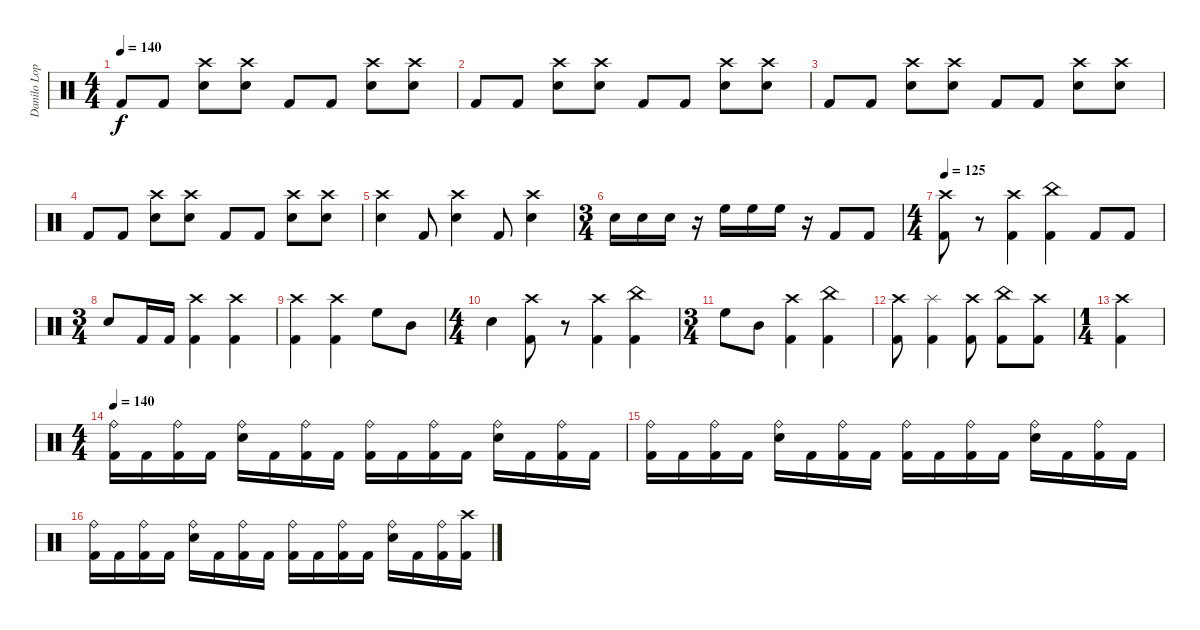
\track ("Danilo Lopes" "Danilo Lop") {instrument percussion}
\staff {score}
\articulation defaults
\ts (4 4)
\tempo 140
\clef neutral
\ks c "Kick (hit) 2".8{dy f} "Kick (hit) 2".8
("Snare (hit) 2" "Crash high (hit)").8 ("Snare (hit) 2" "Crash high (hit)").8 "Kick (hit) 2".8 "Kick (hit) 2".8 ("Snare (hit) 2" "Crash high (hit)").8 ("Snare (hit) 2" "Crash high (hit)").8 |
"Kick (hit) 2".8 "Kick (hit) 2".8 ("Snare (hit) 2" "Crash high (hit)").8 ("Snare (hit) 2" "Crash high (hit)").8 "Kick (hit) 2".8 "Kick (hit) 2".8 ("Snare (hit) 2" "Crash high (hit)").8 ("Snare (hit) 2" "Crash high (hit)").8 |
"Kick (hit) 2".8 "Kick (hit) 2".8 ("Snare (hit) 2" "Crash high (hit)").8 ("Snare (hit) 2" "Crash high (hit)").8 "Kick (hit) 2".8 "Kick (hit) 2".8 ("Snare (hit) 2" "Crash high (hit)").8 ("Snare (hit) 2" "Crash high (hit)").8 |
"Kick (hit) 2".8 "Kick (hit) 2".8 ("Snare (hit) 2" "Crash high (hit)").8 ("Snare (hit) 2" "Crash high (hit)").8 "Kick (hit) 2".8 "Kick (hit) 2".8 ("Snare (hit) 2" "Crash high (hit)").8 ("Snare (hit) 2" "Crash high (hit)").8 |
("Crash high (hit)" "Snare (hit) 2").4 "Kick (hit) 2".8 ("Crash high (hit)" "Snare (hit) 2").4 "Kick (hit) 2".8 ("Crash high (hit)" "Snare (hit) 2").4 |
\ts (3 4)
"Snare (hit) 2".16 "Snare (hit) 2".16 "Snare (hit) 2".16 r.16 "High Floor Tom (hit)".16 "High Floor Tom (hit)".16 "High Floor Tom (hit)".16 r.16 "Kick (hit) 2".8 "Kick (hit) 2".8 |
\ts (4 4)
\tempo 125
("Crash high (hit)" "Kick (hit) 2").8 r.8 ("Crash high (hit)" "Kick (hit) 2").4 ("China (hit)" "Kick (hit) 2").4 "Kick (hit) 2".8 "Kick (hit) 2".8 |
\ts (3 4)
"Snare (hit) 2".8 "Kick (hit) 2".16 "Kick (hit) 2".16 ("Crash high (hit)" "Kick (hit) 2").4 ("Kick (hit) 2" "Crash high (hit)").4 |
("Kick (hit) 2" "Crash high (hit)").4 ("Kick (hit) 2" "Crash high (hit)").4 "High Floor Tom (hit)".8 "Mid Tom (hit)".8 |
\ts (4 4)
"Snare (hit) 2".4 ("Kick (hit) 2" "Crash high (hit)").8 r.8 ("Kick (hit) 2" "Crash high (hit)").4 ("China (hit)" "Kick (hit) 2").4 |
\ts (3 4)
"High Floor Tom (hit)".8 "Mid Tom (hit)".8 ("Kick (hit) 2" "Crash high (hit)").4 ("Kick (hit) 2" "China (hit)").4 |
("Crash high (hit)" "Kick (hit) 2").8 ("Splash (hit)" "Kick (hit) 2").4 ("Crash high (hit)" "Kick (hit) 2").8 ("China (hit)" "Kick (hit) 2").8 ("Crash high (hit)" "Kick (hit) 2").8 |
\ts (1 4)
("Crash high (hit)" "Kick (hit) 2").4 |
\ts (4 4)
\tempo 140
("Ride (bell)" "Kick (hit) 2").16 "Kick (hit) 2".16 ("Ride (bell)" "Kick (hit) 2").16 "Kick (hit) 2".16 ("Ride (bell)" "Snare (hit) 2").16 "Kick (hit) 2".16 ("Ride (bell)" "Kick (hit) 2").16 "Kick (hit) 2".16 ("Ride (bell)" "Kick (hit) 2").16 "Kick (hit) 2".16 ("Ride (bell)" "Kick (hit) 2").16 "Kick (hit) 2".16 ("Ride (bell)" "Snare (hit) 2").16 "Kick (hit) 2".16 ("Ride (bell)" "Kick (hit) 2").16 "Kick (hit) 2".16 |
("Ride (bell)" "Kick (hit) 2").16 "Kick (hit) 2".16 ("Ride (bell)" "Kick (hit) 2").16 "Kick (hit) 2".16 ("Ride (bell)" "Snare (hit) 2").16 "Kick (hit) 2".16 ("Ride (bell)" "Kick (hit) 2").16 "Kick (hit) 2".16 ("Ride (bell)" "Kick (hit) 2").16 "Kick (hit) 2".16 ("Ride (bell)" "Kick (hit) 2").16 "Kick (hit) 2".16 ("Ride (bell)" "Snare (hit) 2").16 "Kick (hit) 2".16 ("Ride (bell)" "Kick (hit) 2").16 "Kick (hit) 2".16 |
("Ride (bell)" "Kick (hit) 2").16 "Kick (hit) 2".16 ("Ride (bell)" "Kick (hit) 2").16 "Kick (hit) 2".16 ("Ride (bell)" "Snare (hit) 2").16 "Kick (hit) 2".16 ("Ride (bell)" "Kick (hit) 2").16 "Kick (hit) 2".16 ("Ride (bell)" "Kick (hit) 2").16 "Kick (hit) 2".16 ("Ride (bell)" "Kick (hit) 2").16 "Kick (hit) 2".16 ("Ride (bell)" "Snare (hit) 2").16 "Kick (hit) 2".16 ("Ride (bell)" "Kick (hit) 2").16 ("Crash high (hit)" "Kick (hit) 2").16
